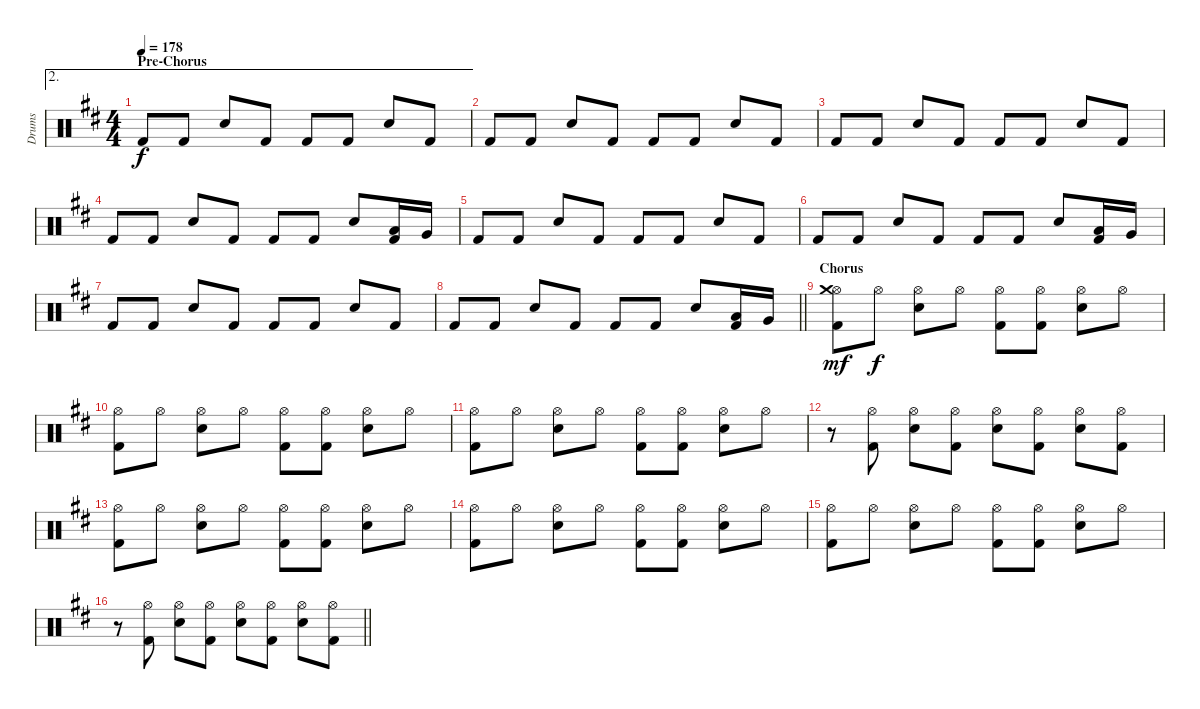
\track ("Drums" "Drums") {instrument percussion}
\staff {score}
\articulation defaults
\ae 2
\ts (4 4)
\section ("" "Pre-Chorus")
\tempo 178
\clef neutral
\ks bminor "Kick (hit) 2".8{dy f} "Kick (hit) 2".8 "Snare (hit) 2".8 "Kick (hit) 2".8 "Kick (hit) 2".8 "Kick (hit) 2".8 "Snare (hit) 2".8 "Kick (hit) 2".8
|
"Kick (hit) 2".8 "Kick (hit) 2".8 "Snare (hit) 2".8 "Kick (hit) 2".8 "Kick (hit) 2".8 "Kick (hit) 2".8 "Snare (hit) 2".8 "Kick (hit) 2".8 |
"Kick (hit) 2".8 "Kick (hit) 2".8 "Snare (hit) 2".8 "Kick (hit) 2".8 "Kick (hit) 2".8 "Kick (hit) 2".8 "Snare (hit) 2".8 "Kick (hit) 2".8 |
"Kick (hit) 2".8 "Kick (hit) 2".8 "Snare (hit) 2".8 "Kick (hit) 2".8 "Kick (hit) 2".8 "Kick (hit) 2".8 "Snare (hit) 2".8 ("Low Tom (hit)" "Kick (hit) 2").16 "Very Low Tom (hit)".16 |
"Kick (hit) 2".8 "Kick (hit) 2".8 "Snare (hit) 2".8 "Kick (hit) 2".8 "Kick (hit) 2".8 "Kick (hit) 2".8 "Snare (hit) 2".8 "Kick (hit) 2".8 |
"Kick (hit) 2".8 "Kick (hit) 2".8 "Snare (hit) 2".8 "Kick (hit) 2".8 "Kick (hit) 2".8 "Kick (hit) 2".8 "Snare (hit) 2".8 ("Low Tom (hit)" "Kick (hit) 2").16 "Very Low Tom (hit)".16 |
"Kick (hit) 2".8 "Kick (hit) 2".8 "Snare (hit) 2".8 "Kick (hit) 2".8 "Kick (hit) 2".8 "Kick (hit) 2".8 "Snare (hit) 2".8 "Kick (hit) 2".8 |
\barLineRight lightlight "Kick (hit) 2".8 "Kick (hit) 2".8 "Snare (hit) 2".8 "Kick (hit) 2".8 "Kick (hit) 2".8 "Kick (hit) 2".8 "Snare (hit) 2".8
("Low Tom (hit)" "Kick (hit) 2").16 "Very Low Tom (hit)".16 |
\section ("" "Chorus")
("Hi-Hat (open)" "Crash medium (hit)" "Kick (hit) 2").8{dy mf} "Hi-Hat (open)".8{dy f} ("Hi-Hat (open)" "Snare (hit) 2").8 "Hi-Hat (open)".8 ("Hi-Hat (open)" "Kick (hit) 2").8 ("Hi-Hat (open)" "Kick (hit) 2").8 ("Hi-Hat (open)" "Snare (hit) 2").8 "Hi-Hat (open)".8 |
("Hi-Hat (open)" "Kick (hit) 2").8 "Hi-Hat (open)".8 ("Hi-Hat (open)" "Snare (hit) 2").8 "Hi-Hat (open)".8 ("Hi-Hat (open)" "Kick (hit) 2").8 ("Hi-Hat (open)" "Kick (hit) 2").8 ("Hi-Hat (open)" "Snare (hit) 2").8 "Hi-Hat (open)".8 |
("Hi-Hat (open)" "Kick (hit) 2").8 "Hi-Hat (open)".8 ("Hi-Hat (open)" "Snare (hit) 2").8 "Hi-Hat (open)".8 ("Hi-Hat (open)" "Kick (hit) 2").8 ("Hi-Hat (open)" "Kick (hit) 2").8 ("Hi-Hat (open)" "Snare (hit) 2").8 "Hi-Hat (open)".8 |
r.8 ("Hi-Hat (open)" "Kick (hit) 2").8 ("Hi-Hat (open)" "Snare (hit) 2").8 ("Hi-Hat (open)" "Kick (hit) 2").8 ("Hi-Hat (open)" "Snare (hit) 2").8 ("Hi-Hat (open)" "Kick (hit) 2").8 ("Hi-Hat (open)" "Snare (hit) 2").8 ("Hi-Hat (open)" "Kick (hit) 2").8 |
("Hi-Hat (open)" "Kick (hit) 2").8 "Hi-Hat (open)".8 ("Hi-Hat (open)" "Snare (hit) 2").8 "Hi-Hat (open)".8 ("Hi-Hat (open)" "Kick (hit) 2").8 ("Hi-Hat (open)" "Kick (hit) 2").8 ("Hi-Hat (open)" "Snare (hit) 2").8 "Hi-Hat (open)".8 |
("Hi-Hat (open)" "Kick (hit) 2").8 "Hi-Hat (open)".8 ("Hi-Hat (open)" "Snare (hit) 2").8 "Hi-Hat (open)".8 ("Hi-Hat (open)" "Kick (hit) 2").8 ("Hi-Hat (open)" "Kick (hit) 2").8 ("Hi-Hat (open)" "Snare (hit) 2").8 "Hi-Hat (open)".8 |
("Hi-Hat (open)" "Kick (hit) 2").8 "Hi-Hat (open)".8 ("Hi-Hat (open)" "Snare (hit) 2").8 "Hi-Hat (open)".8 ("Hi-Hat (open)" "Kick (hit) 2").8 ("Hi-Hat (open)" "Kick (hit) 2").8 ("Hi-Hat (open)" "Snare (hit) 2").8 "Hi-Hat (open)".8 |
\barLineRight lightlight
r.8 ("Hi-Hat (open)" "Kick (hit) 2").8 ("Hi-Hat (open)" "Snare (hit) 2").8 ("Hi-Hat (open)" "Kick (hit) 2").8 ("Hi-Hat (open)" "Snare (hit) 2").8 ("Hi-Hat (open)" "Kick (hit) 2").8 ("Hi-Hat (open)" "Snare (hit) 2").8 ("Hi-Hat (open)" "Kick (hit) 2").8
